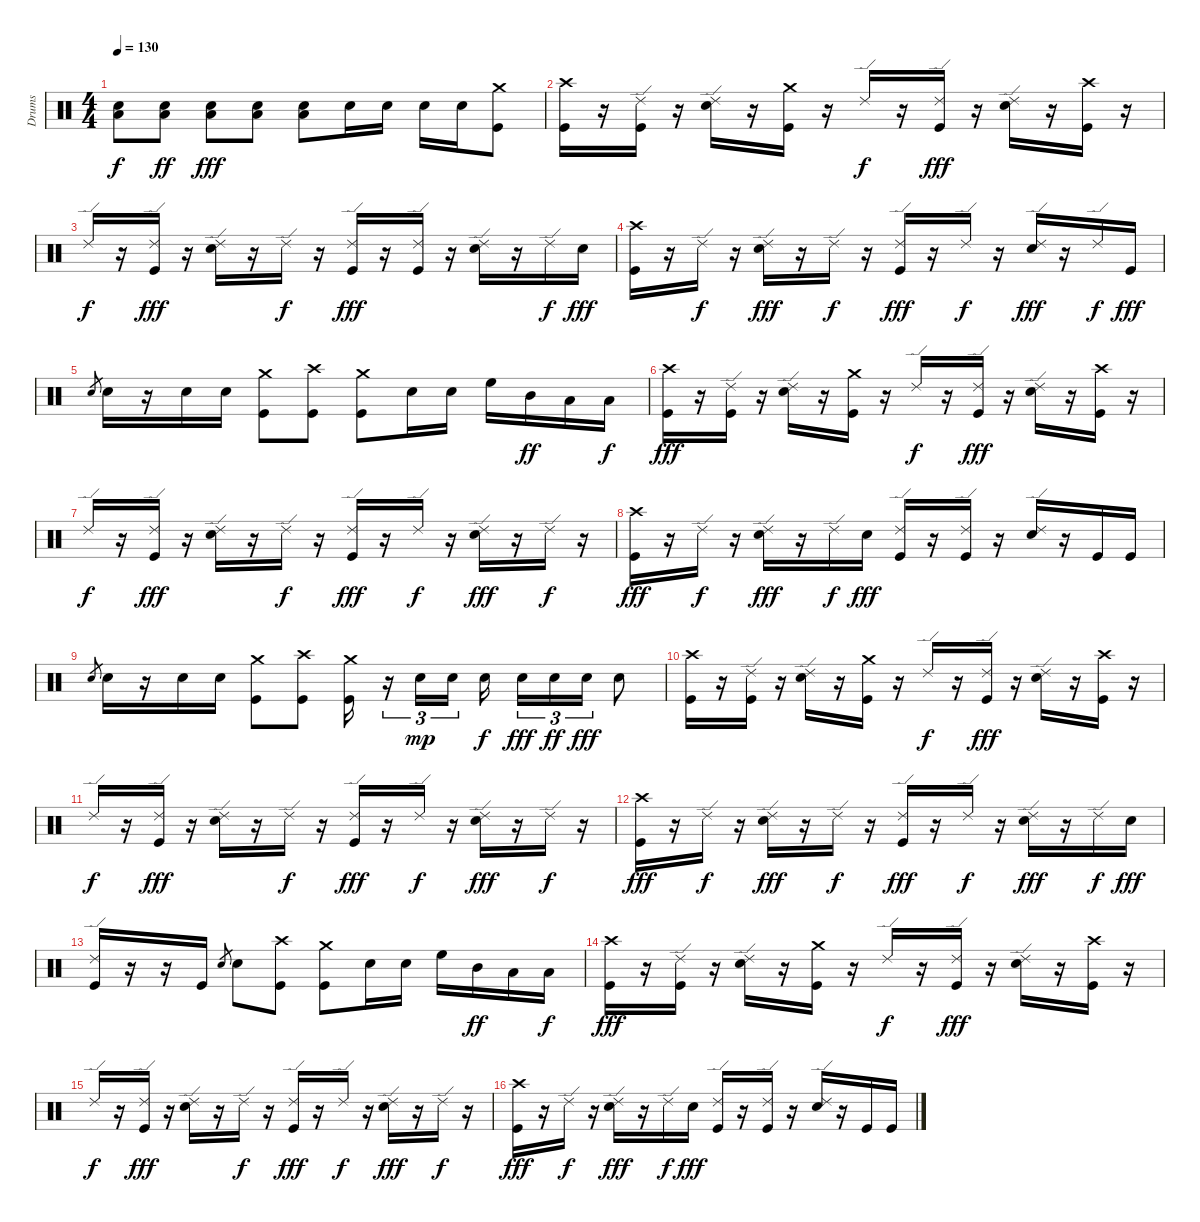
\track ("Drums" "Drums") {instrument percussion}
\staff {score}
\articulation defaults
\ts (4 4)
\tempo 130
\clef neutral
\ks c
("Low Floor Tom (hit)" "Electric Snare (hit)").8{dy f} ("Low Floor Tom (hit)" "Electric Snare (hit)").8{dy ff} ("Low Floor Tom (hit)" "Electric Snare (hit)").8{dy fff} ("Low Floor Tom (hit)" "Electric Snare (hit)").8 ("Low Floor Tom (hit)" "Electric Snare (hit)").8 "Electric Snare (hit)".16 "Electric Snare (hit)".16 "Electric Snare (hit)".16 "Electric Snare (hit)".16 ("Kick (hit)" "Crash medium (hit)").8 |
("Kick (hit)" "Crash high (hit)").16 r.16 ("Kick (hit)" "Ride (edge) 2").16 r.16 ("Electric Snare (hit)" "Ride (edge) 2").16 r.16 ("Kick (hit)" "Crash medium (hit)").16 r.16 "Ride (edge) 2".16{dy f} r.16 ("Kick (hit)" "Ride (edge) 2").16{dy fff} r.16 ("Electric Snare (hit)" "Ride (edge) 2").16 r.16 ("Kick (hit)" "Crash high (hit)").16 r.16 |
"Ride (edge) 2".16{dy f} r.16 ("Kick (hit)" "Ride (edge) 2").16{dy fff} r.16 ("Electric Snare (hit)" "Ride (edge) 2").16 r.16 "Ride (edge) 2".16{dy f} r.16 ("Kick (hit)" "Ride (edge) 2").16{dy fff} r.16 ("Kick (hit)" "Ride (edge) 2").16 r.16 ("Electric Snare (hit)" "Ride (edge) 2").16 r.16 "Ride (edge) 2".16{dy f} "Electric Snare (hit)".16{dy fff} |
("Kick (hit)" "Crash high (hit)").16 r.16 "Ride (edge) 2".16{dy f} r.16 ("Electric Snare (hit)" "Ride (edge) 2").16{dy fff} r.16 "Ride (edge) 2".16{dy f} r.16 ("Kick (hit)" "Ride (edge) 2").16{dy fff} r.16 "Ride (edge) 2".16{dy f} r.16 ("Electric Snare (hit)" "Ride (edge) 2").16{dy fff} r.16 "Ride (edge) 2".16{dy f} "Kick (hit)".16{dy fff} |
"Electric Snare (hit)".8{gr} "Electric Snare (hit)".16 r.16 "Electric Snare (hit)".16 "Electric Snare (hit)".16 ("Kick (hit)" "Crash medium (hit)").8 ("Kick (hit)" "Crash high (hit)").8 ("Kick (hit)" "Crash medium (hit)").8 "Electric Snare (hit)".16 "Electric Snare (hit)".16 "High Floor Tom (hit)".16 "Mid Tom (hit)".16{dy ff} "Low Tom (hit)".16 "Low Floor Tom (hit)".16{dy f} |
("Kick (hit)" "Crash high (hit)").16{dy fff} r.16 ("Kick (hit)" "Ride (edge) 2").16 r.16 ("Electric Snare (hit)" "Ride (edge) 2").16 r.16 ("Kick (hit)" "Crash medium (hit)").16 r.16 "Ride (edge) 2".16{dy f} r.16 ("Kick (hit)" "Ride (edge) 2").16{dy fff} r.16 ("Electric Snare (hit)" "Ride (edge) 2").16 r.16 ("Kick (hit)" "Crash high (hit)").16 r.16 |
"Ride (edge) 2".16{dy f} r.16 ("Kick (hit)" "Ride (edge) 2").16{dy fff} r.16 ("Electric Snare (hit)" "Ride (edge) 2").16 r.16 "Ride (edge) 2".16{dy f} r.16 ("Kick (hit)" "Ride (edge) 2").16{dy fff} r.16 "Ride (edge) 2".16{dy f} r.16 ("Electric Snare (hit)" "Ride (edge) 2").16{dy fff} r.16 "Ride (edge) 2".16{dy f} r.16 |
("Kick (hit)" "Crash high (hit)").16{dy fff} r.16 "Ride (edge) 2".16{dy f} r.16 ("Electric Snare (hit)" "Ride (edge) 2").16{dy fff} r.16 "Ride (edge) 2".16{dy f} "Electric Snare (hit)".16{dy fff} ("Kick (hit)" "Ride (edge) 2").16 r.16 ("Kick (hit)" "Ride (edge) 2").16 r.16 ("Electric Snare (hit)" "Ride (edge) 2").16 r.16 "Kick (hit)".16 "Kick (hit)".16 |
"Electric Snare (hit)".8{gr} "Electric Snare (hit)".16 r.16 "Electric Snare (hit)".16 "Electric Snare (hit)".16 ("Kick (hit)" "Crash medium (hit)").8 ("Kick (hit)" "Crash high (hit)").8 ("Kick (hit)" "Crash medium (hit)").16 r.16{tu (3 2)} "Electric Snare (hit)".16{tu (3 2) dy mp} "Electric Snare (hit)".16{tu (3 2)} "Electric Snare (hit)".16{dy f} "Electric Snare (hit)".16{tu (3 2) dy fff} "Electric Snare (hit)".16{tu (3 2) dy ff} "Electric Snare (hit)".16{tu (3 2) dy fff} "Electric Snare (hit)".8 |
("Kick (hit)" "Crash high (hit)").16 r.16 ("Kick (hit)" "Ride (edge) 2").16 r.16 ("Electric Snare (hit)" "Ride (edge) 2").16 r.16 ("Kick (hit)" "Crash medium (hit)").16 r.16 "Ride (edge) 2".16{dy f} r.16 ("Kick (hit)" "Ride (edge) 2").16{dy fff} r.16 ("Electric Snare (hit)" "Ride (edge) 2").16 r.16 ("Kick (hit)" "Crash high (hit)").16 r.16 |
"Ride (edge) 2".16{dy f} r.16 ("Kick (hit)" "Ride (edge) 2").16{dy fff} r.16 ("Electric Snare (hit)" "Ride (edge) 2").16 r.16 "Ride (edge) 2".16{dy f} r.16 ("Kick (hit)" "Ride (edge) 2").16{dy fff} r.16 "Ride (edge) 2".16{dy f} r.16 ("Electric Snare (hit)" "Ride (edge) 2").16{dy fff} r.16 "Ride (edge) 2".16{dy f} r.16 |
("Kick (hit)" "Crash high (hit)").16{dy fff} r.16 "Ride (edge) 2".16{dy f} r.16 ("Electric Snare (hit)" "Ride (edge) 2").16{dy fff} r.16 "Ride (edge) 2".16{dy f} r.16 ("Kick (hit)" "Ride (edge) 2").16{dy fff} r.16 "Ride (edge) 2".16{dy f} r.16 ("Electric Snare (hit)" "Ride (edge) 2").16{dy fff} r.16 "Ride (edge) 2".16{dy f} "Electric Snare (hit)".16{dy fff} |
("Kick (hit)" "Ride (edge) 2").16 r.16 r.16 "Kick (hit)".16 "Electric Snare (hit)".8{gr} "Electric Snare (hit)".8 ("Kick (hit)" "Crash high (hit)").8 ("Kick (hit)" "Crash medium (hit)").8 "Electric Snare (hit)".16 "Electric Snare (hit)".16 "High Floor Tom (hit)".16 "Mid Tom (hit)".16{dy ff} "Low Tom (hit)".16 "Low Floor Tom (hit)".16{dy f} |
("Kick (hit)" "Crash high (hit)").16{dy fff} r.16 ("Kick (hit)" "Ride (edge) 2").16 r.16 ("Electric Snare (hit)" "Ride (edge) 2").16 r.16 ("Kick (hit)" "Crash medium (hit)").16 r.16 "Ride (edge) 2".16{dy f} r.16 ("Kick (hit)" "Ride (edge) 2").16{dy fff} r.16 ("Electric Snare (hit)" "Ride (edge) 2").16 r.16 ("Kick (hit)" "Crash high (hit)").16 r.16 |
"Ride (edge) 2".16{dy f} r.16 ("Kick (hit)" "Ride (edge) 2").16{dy fff} r.16 ("Electric Snare (hit)" "Ride (edge) 2").16 r.16 "Ride (edge) 2".16{dy f} r.16 ("Kick (hit)" "Ride (edge) 2").16{dy fff} r.16 "Ride (edge) 2".16{dy f} r.16 ("Electric Snare (hit)" "Ride (edge) 2").16{dy fff} r.16 "Ride (edge) 2".16{dy f} r.16 |
("Kick (hit)" "Crash high (hit)").16{dy fff} r.16 "Ride (edge) 2".16{dy f} r.16 ("Electric Snare (hit)" "Ride (edge) 2").16{dy fff} r.16 "Ride (edge) 2".16{dy f} "Electric Snare (hit)".16{dy fff} ("Kick (hit)" "Ride (edge) 2").16 r.16 ("Kick (hit)" "Ride (edge) 2").16 r.16 ("Electric Snare (hit)" "Ride (edge) 2").16 r.16 "Kick (hit)".16 "Kick (hit)".16
